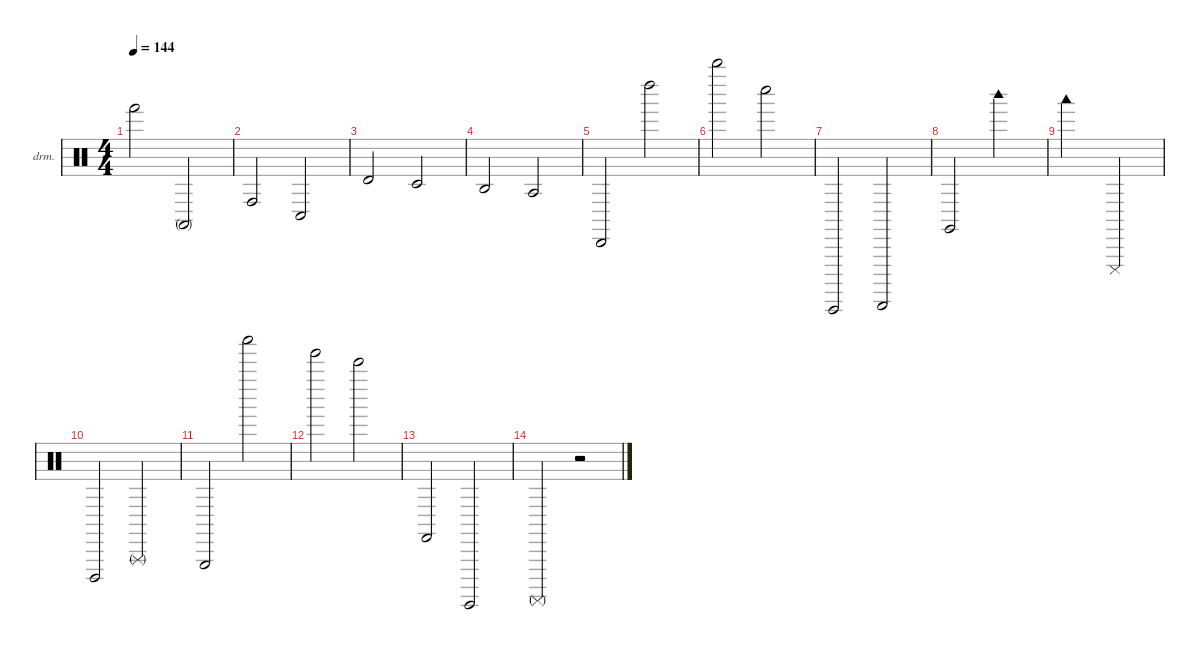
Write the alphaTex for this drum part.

\defaultSystemsLayout 4
\hideDynamics
\bracketExtendMode nobrackets
\firstSystemTrackNameOrientation horizontal
\otherSystemsTrackNameOrientation horizontal
\track ("Percussions" "drm.") {instrument percussion}
\staff {score}
\articulation defaults
\ts (4 4)
\tempo 144
\clef neutral
\ks c "Hand (hit)".2{dy f beam Down} "Conga high (mute)".2{beam Up}
|
"Conga high (hit)".2{beam Up} "Conga low (hit)".2{beam Up} |
"Timbale high (hit)".2{beam Up} "Timbale low (hit)".2{beam Up} |
"Agogo high (hit)".2{beam Up} "Agogo tow (hit)".2{beam Up} |
"Cabasa (hit)".2{beam Up} "Left Maraca (hit)".2{beam Down} |
"Whistle high (hit)".2{beam Down} "Whistle low (hit)".2{beam Down} |
"Guiro (hit)".2{beam Up} "Guiro (scrap-return)".2{beam Up} |
"Claves (hit)".2{beam Up} "Woodblock high (hit)".2{beam Down} |
"Woodblock low (hit)".2{beam Down} "Cuica (mute)".2{beam Up} |
"Cuica (open)".2{beam Up} "Triangle (rnute)".2{beam Up} |
"Triangle (hit)".2{beam Up} "Shaker (hit)".2{beam Down} |
"Jingle Bell (hit)".2{beam Down} "Bell Tree (hit)".2{beam Down} |
"Castanets (hit)".2{beam Up} "Surdo (hit)".2{beam Up} |
"Surdo (mute)".2{beam Up} r.2{beam Up}
